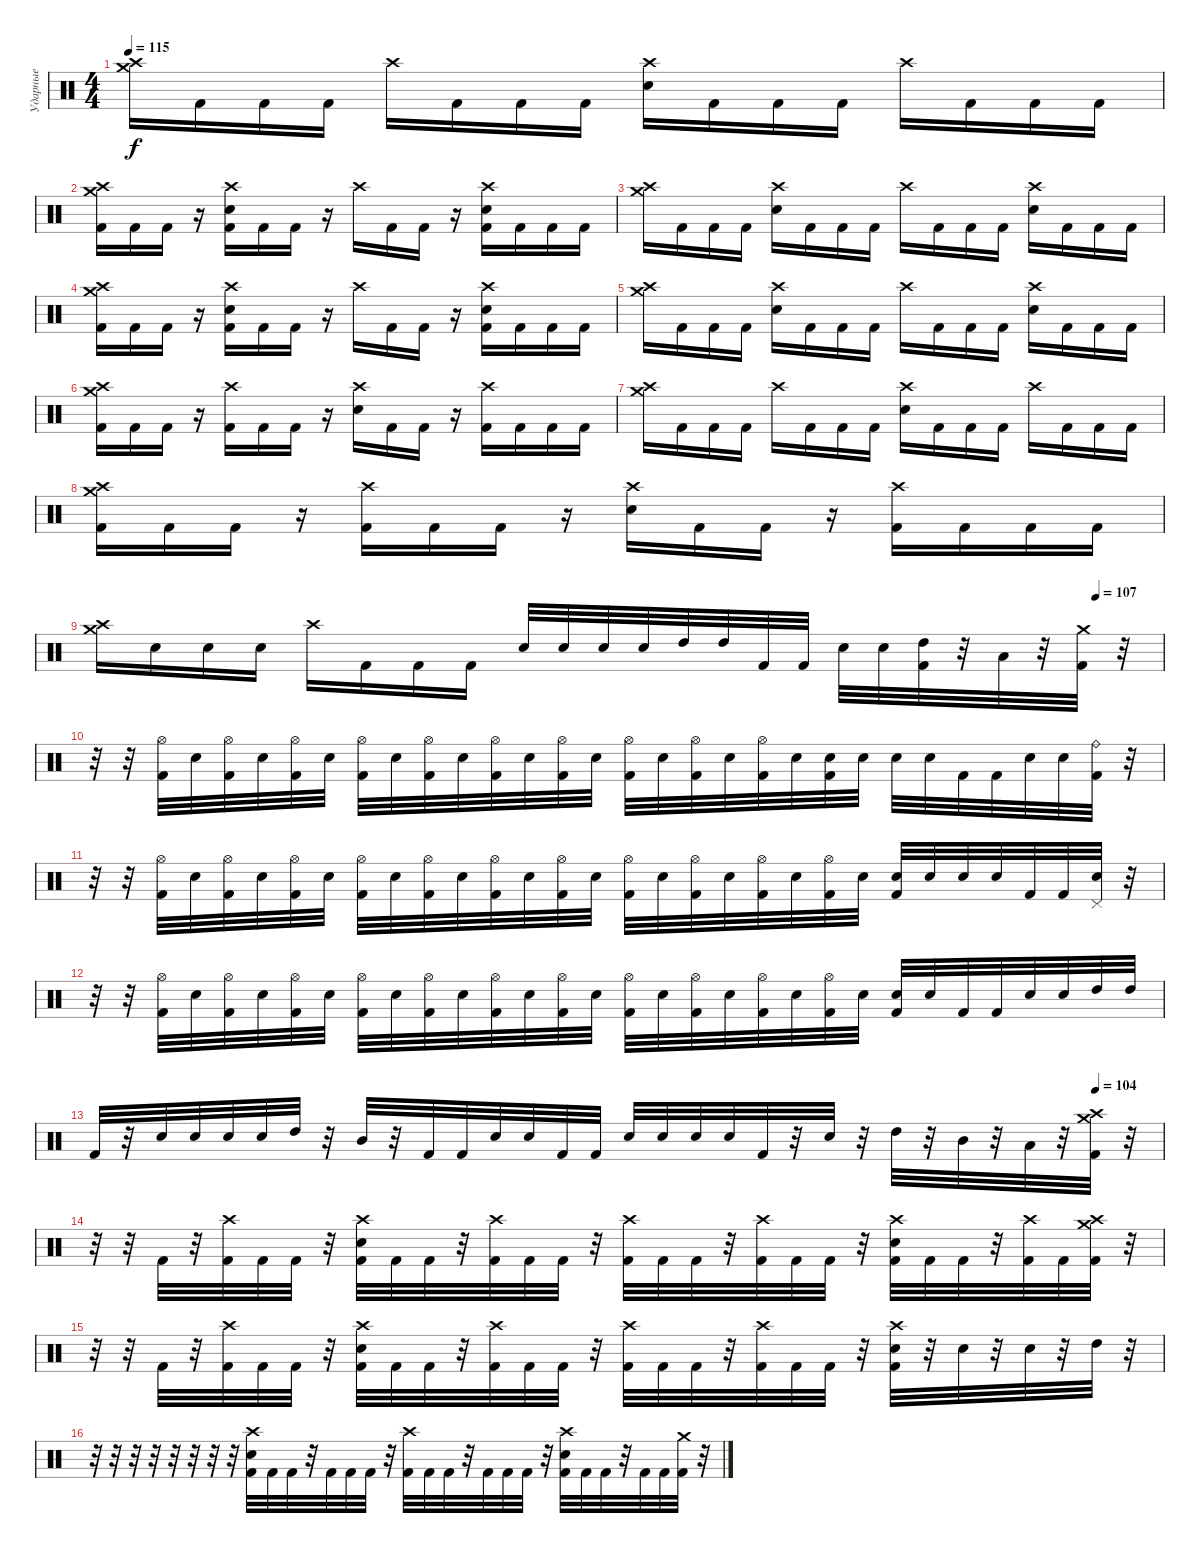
\track ("Ударные" "Ударные") {instrument percussion}
\staff {score}
\articulation defaults
\ts (4 4)
\tempo 115
\clef neutral
\ks c
("Crash high (hit)" "Crash medium (hit)").16{dy f} "Kick (hit) 2".16 "Kick (hit) 2".16 "Kick (hit) 2".16 "Crash high (hit)".16 "Kick (hit) 2".16 "Kick (hit) 2".16 "Kick (hit) 2".16 ("Crash high (hit)" "Electric Snare (hit)").16 "Kick (hit) 2".16 "Kick (hit) 2".16 "Kick (hit) 2".16 "Crash high (hit)".16 "Kick (hit) 2".16 "Kick (hit) 2".16 "Kick (hit) 2".16 |
("Crash high (hit)" "Crash medium (hit)" "Kick (hit) 2").16 "Kick (hit) 2".16 "Kick (hit) 2".16 r.16 ("Crash high (hit)" "Electric Snare (hit)" "Kick (hit) 2").16 "Kick (hit) 2".16 "Kick (hit) 2".16 r.16 "Crash high (hit)".16 "Kick (hit) 2".16 "Kick (hit) 2".16 r.16 ("Crash high (hit)" "Electric Snare (hit)" "Kick (hit) 2").16 "Kick (hit) 2".16 "Kick (hit) 2".16 "Kick (hit) 2".16 |
("Crash high (hit)" "Crash medium (hit)").16 "Kick (hit) 2".16 "Kick (hit) 2".16 "Kick (hit) 2".16 ("Crash high (hit)" "Electric Snare (hit)").16 "Kick (hit) 2".16 "Kick (hit) 2".16 "Kick (hit) 2".16 "Crash high (hit)".16 "Kick (hit) 2".16 "Kick (hit) 2".16 "Kick (hit) 2".16 ("Crash high (hit)" "Electric Snare (hit)").16 "Kick (hit) 2".16 "Kick (hit) 2".16 "Kick (hit) 2".16 |
("Crash high (hit)" "Crash medium (hit)" "Kick (hit) 2").16 "Kick (hit) 2".16 "Kick (hit) 2".16 r.16 ("Crash high (hit)" "Electric Snare (hit)" "Kick (hit) 2").16 "Kick (hit) 2".16 "Kick (hit) 2".16 r.16 "Crash high (hit)".16 "Kick (hit) 2".16 "Kick (hit) 2".16 r.16 ("Crash high (hit)" "Electric Snare (hit)" "Kick (hit) 2").16 "Kick (hit) 2".16 "Kick (hit) 2".16 "Kick (hit) 2".16 |
("Crash high (hit)" "Crash medium (hit)").16 "Kick (hit) 2".16 "Kick (hit) 2".16 "Kick (hit) 2".16 ("Crash high (hit)" "Electric Snare (hit)").16 "Kick (hit) 2".16 "Kick (hit) 2".16 "Kick (hit) 2".16 "Crash high (hit)".16 "Kick (hit) 2".16 "Kick (hit) 2".16 "Kick (hit) 2".16 ("Crash high (hit)" "Electric Snare (hit)").16 "Kick (hit) 2".16 "Kick (hit) 2".16 "Kick (hit) 2".16 |
("Crash high (hit)" "Crash medium (hit)" "Kick (hit) 2").16 "Kick (hit) 2".16 "Kick (hit) 2".16 r.16 ("Crash high (hit)" "Kick (hit) 2").16 "Kick (hit) 2".16 "Kick (hit) 2".16 r.16 ("Crash high (hit)" "Electric Snare (hit)").16 "Kick (hit) 2".16 "Kick (hit) 2".16 r.16 ("Crash high (hit)" "Kick (hit) 2").16 "Kick (hit) 2".16 "Kick (hit) 2".16 "Kick (hit) 2".16 |
("Crash high (hit)" "Crash medium (hit)").16 "Kick (hit) 2".16 "Kick (hit) 2".16 "Kick (hit) 2".16 "Crash high (hit)".16 "Kick (hit) 2".16 "Kick (hit) 2".16 "Kick (hit) 2".16 ("Crash high (hit)" "Electric Snare (hit)").16 "Kick (hit) 2".16 "Kick (hit) 2".16 "Kick (hit) 2".16 "Crash high (hit)".16 "Kick (hit) 2".16 "Kick (hit) 2".16 "Kick (hit) 2".16 |
("Crash high (hit)" "Crash medium (hit)" "Kick (hit) 2").16 "Kick (hit) 2".16 "Kick (hit) 2".16 r.16 ("Crash high (hit)" "Kick (hit) 2").16 "Kick (hit) 2".16 "Kick (hit) 2".16 r.16 ("Crash high (hit)" "Electric Snare (hit)").16 "Kick (hit) 2".16 "Kick (hit) 2".16 r.16 ("Crash high (hit)" "Kick (hit) 2").16 "Kick (hit) 2".16 "Kick (hit) 2".16 "Kick (hit) 2".16 |
\tempo (107 0.9375)
("Crash high (hit)" "Crash medium (hit)").16 "Electric Snare (hit)".16 "Electric Snare (hit)".16 "Electric Snare (hit)".16 "Crash high (hit)".16 "Kick (hit) 2".16 "Kick (hit) 2".16 "Kick (hit) 2".16 "Electric Snare (hit)".32 "Electric Snare (hit)".32 "Electric Snare (hit)".32 "Electric Snare (hit)".32 "High Tom (hit)".32 "High Tom (hit)".32 "Kick (hit) 2".32 "Kick (hit) 2".32 "Electric Snare (hit)".32 "Electric Snare (hit)".32 ("High Tom (hit)" "Kick (hit) 2").32 r.32 "Low Tom (hit)".32 r.32 ("Crash medium (hit)" "Kick (hit) 2").32 r.32 |
r.32 r.32 ("Hi-Hat (open)" "Kick (hit) 2").32 "Electric Snare (hit)".32 ("Hi-Hat (open)" "Kick (hit) 2").32 "Electric Snare (hit)".32 ("Hi-Hat (open)" "Kick (hit) 2").32 "Electric Snare (hit)".32 ("Hi-Hat (open)" "Kick (hit) 2").32 "Electric Snare (hit)".32 ("Hi-Hat (open)" "Kick (hit) 2").32 "Electric Snare (hit)".32 ("Hi-Hat (open)" "Kick (hit) 2").32 "Electric Snare (hit)".32 ("Hi-Hat (open)" "Kick (hit) 2").32 "Electric Snare (hit)".32 ("Hi-Hat (open)" "Kick (hit) 2").32 "Electric Snare (hit)".32 ("Hi-Hat (open)" "Kick (hit) 2").32 "Electric Snare (hit)".32 ("Hi-Hat (open)" "Kick (hit) 2").32 "Electric Snare (hit)".32 ("Electric Snare (hit)" "Kick (hit) 2").32 "Electric Snare (hit)".32 "Electric Snare (hit)".32 "Electric Snare (hit)".32 "Kick (hit) 2".32 "Kick (hit) 2".32 "Electric Snare (hit)".32 "Electric Snare (hit)".32 ("Ride (bell)" "Kick (hit) 2").32 r.32 |
r.32 r.32 ("Hi-Hat (open)" "Kick (hit) 2").32 "Electric Snare (hit)".32 ("Hi-Hat (open)" "Kick (hit) 2").32 "Electric Snare (hit)".32 ("Hi-Hat (open)" "Kick (hit) 2").32 "Electric Snare (hit)".32 ("Hi-Hat (open)" "Kick (hit) 2").32 "Electric Snare (hit)".32 ("Hi-Hat (open)" "Kick (hit) 2").32 "Electric Snare (hit)".32 ("Hi-Hat (open)" "Kick (hit) 2").32 "Electric Snare (hit)".32 ("Hi-Hat (open)" "Kick (hit) 2").32 "Electric Snare (hit)".32 ("Hi-Hat (open)" "Kick (hit) 2").32 "Electric Snare (hit)".32 ("Hi-Hat (open)" "Kick (hit) 2").32 "Electric Snare (hit)".32 ("Hi-Hat (open)" "Kick (hit) 2").32 "Electric Snare (hit)".32 ("Hi-Hat (open)" "Kick (hit) 2").32 "Electric Snare (hit)".32 ("Electric Snare (hit)" "Kick (hit) 2").32 "Electric Snare (hit)".32 "Electric Snare (hit)".32 "Electric Snare (hit)".32 "Kick (hit) 2".32 "Kick (hit) 2".32 ("Pedal Hi-Hat (hit)" "Electric Snare (hit)").32 r.32 |
r.32 r.32 ("Hi-Hat (open)" "Kick (hit) 2").32 "Electric Snare (hit)".32 ("Hi-Hat (open)" "Kick (hit) 2").32 "Electric Snare (hit)".32 ("Hi-Hat (open)" "Kick (hit) 2").32 "Electric Snare (hit)".32 ("Hi-Hat (open)" "Kick (hit) 2").32 "Electric Snare (hit)".32 ("Hi-Hat (open)" "Kick (hit) 2").32 "Electric Snare (hit)".32 ("Hi-Hat (open)" "Kick (hit) 2").32 "Electric Snare (hit)".32 ("Hi-Hat (open)" "Kick (hit) 2").32 "Electric Snare (hit)".32 ("Hi-Hat (open)" "Kick (hit) 2").32 "Electric Snare (hit)".32 ("Hi-Hat (open)" "Kick (hit) 2").32 "Electric Snare (hit)".32 ("Hi-Hat (open)" "Kick (hit) 2").32 "Electric Snare (hit)".32 ("Hi-Hat (open)" "Kick (hit) 2").32 "Electric Snare (hit)".32 ("Electric Snare (hit)" "Kick (hit) 2").32 "Electric Snare (hit)".32 "Kick (hit) 2".32 "Kick (hit) 2".32 "Electric Snare (hit)".32 "Electric Snare (hit)".32 "High Tom (hit)".32 "High Tom (hit)".32 |
\tempo (104 0.9375)
"Kick (hit) 2".32 r.32 "Electric Snare (hit)".32 "Electric Snare (hit)".32 "Electric Snare (hit)".32 "Electric Snare (hit)".32 "High Tom (hit)".32 r.32 "Mid Tom (hit)".32 r.32 "Kick (hit) 2".32 "Kick (hit) 2".32 "Electric Snare (hit)".32 "Electric Snare (hit)".32 "Kick (hit) 2".32 "Kick (hit) 2".32 "Electric Snare (hit)".32 "Electric Snare (hit)".32 "Electric Snare (hit)".32 "Electric Snare (hit)".32 "Kick (hit) 2".32 r.32 "Electric Snare (hit)".32 r.32 "High Tom (hit)".32 r.32 "Mid Tom (hit)".32 r.32 "Low Tom (hit)".32 r.32 ("Crash high (hit)" "Crash medium (hit)" "Kick (hit) 2").32 r.32 |
r.32 r.32 "Kick (hit) 2".32 r.32 ("Crash high (hit)" "Kick (hit) 2").32 "Kick (hit) 2".32 "Kick (hit) 2".32 r.32 ("Crash high (hit)" "Electric Snare (hit)" "Kick (hit) 2").32 "Kick (hit) 2".32 "Kick (hit) 2".32 r.32 ("Crash high (hit)" "Kick (hit) 2").32 "Kick (hit) 2".32 "Kick (hit) 2".32 r.32 ("Crash high (hit)" "Kick (hit) 2").32 "Kick (hit) 2".32 "Kick (hit) 2".32 r.32 ("Crash high (hit)" "Kick (hit) 2").32 "Kick (hit) 2".32 "Kick (hit) 2".32 r.32 ("Crash high (hit)" "Electric Snare (hit)" "Kick (hit) 2").32 "Kick (hit) 2".32 "Kick (hit) 2".32 r.32 ("Crash high (hit)" "Kick (hit) 2").32 "Kick (hit) 2".32 ("Crash medium (hit)" "Crash high (hit)" "Kick (hit) 2").32 r.32 |
r.32 r.32 "Kick (hit) 2".32 r.32 ("Crash high (hit)" "Kick (hit) 2").32 "Kick (hit) 2".32 "Kick (hit) 2".32 r.32 ("Crash high (hit)" "Electric Snare (hit)" "Kick (hit) 2").32 "Kick (hit) 2".32 "Kick (hit) 2".32 r.32 ("Crash high (hit)" "Kick (hit) 2").32 "Kick (hit) 2".32 "Kick (hit) 2".32 r.32 ("Crash high (hit)" "Kick (hit) 2").32 "Kick (hit) 2".32 "Kick (hit) 2".32 r.32 ("Crash high (hit)" "Kick (hit) 2").32 "Kick (hit) 2".32 "Kick (hit) 2".32 r.32 ("Crash high (hit)" "Electric Snare (hit)" "Kick (hit) 2").32 r.32 "Electric Snare (hit)".32 r.32 "Electric Snare (hit)".32 r.32 "High Tom (hit)".32 r.32 |
r.32 r.32 r.32 r.32 r.32 r.32 r.32 r.32 ("Crash high (hit)" "Electric Snare (hit)" "Kick (hit) 2").32 "Kick (hit) 2".32 "Kick (hit) 2".32 r.32 "Kick (hit) 2".32 "Kick (hit) 2".32 "Kick (hit) 2".32 r.32 ("Crash high (hit)" "Kick (hit) 2").32 "Kick (hit) 2".32 "Kick (hit) 2".32 r.32 "Kick (hit) 2".32 "Kick (hit) 2".32 "Kick (hit) 2".32 r.32 ("Crash high (hit)" "Electric Snare (hit)" "Kick (hit) 2").32 "Kick (hit) 2".32 "Kick (hit) 2".32 r.32 "Kick (hit) 2".32 "Kick (hit) 2".32 ("Crash medium (hit)" "Kick (hit) 2").32 r.32
